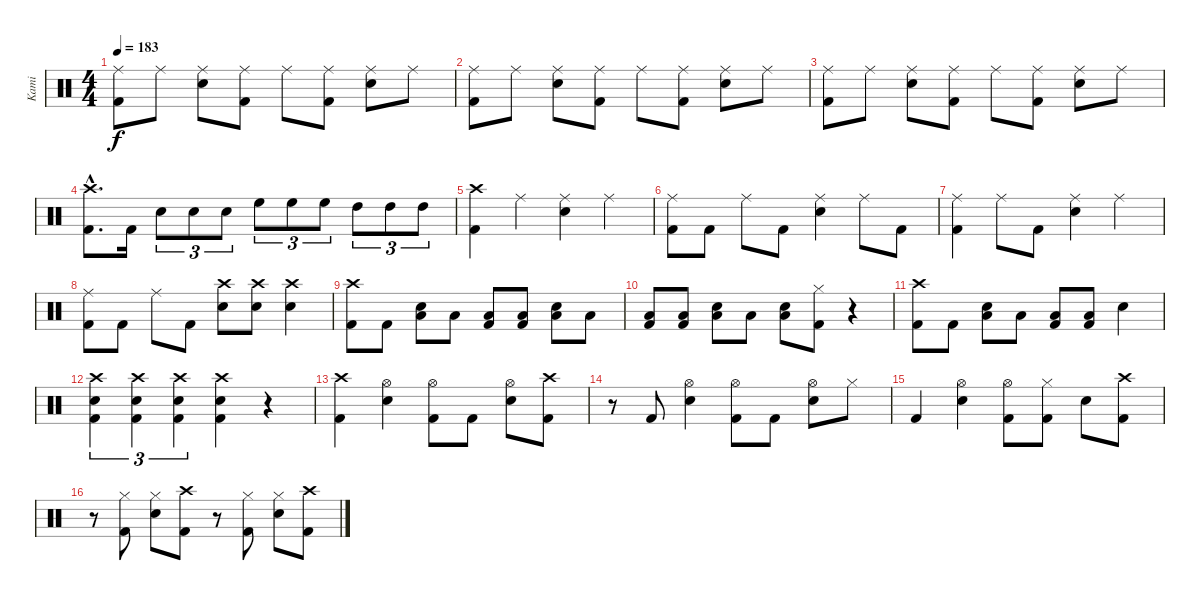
\track ("Kami" "Kami") {instrument percussion}
\staff {score}
\articulation defaults
\ts (4 4)
\tempo 183
\clef neutral
\ks c
("Ride (middle)" "Kick (hit) 2").8{dy f} "Ride (middle)".8 ("Ride (middle)" "Electric Snare (hit)").8 ("Ride (middle)" "Kick (hit) 2").8 "Ride (middle)".8 ("Ride (middle)" "Kick (hit) 2").8 ("Ride (middle)" "Electric Snare (hit)").8 "Ride (middle)".8 |
("Ride (middle)" "Kick (hit) 2").8 "Ride (middle)".8 ("Ride (middle)" "Electric Snare (hit)").8 ("Ride (middle)" "Kick (hit) 2").8 "Ride (middle)".8 ("Ride (middle)" "Kick (hit) 2").8 ("Ride (middle)" "Electric Snare (hit)").8 "Ride (middle)".8 |
("Ride (middle)" "Kick (hit) 2").8 "Ride (middle)".8 ("Ride (middle)" "Electric Snare (hit)").8 ("Ride (middle)" "Kick (hit) 2").8 "Ride (middle)".8 ("Ride (middle)" "Kick (hit) 2").8 ("Ride (middle)" "Electric Snare (hit)").8 "Ride (middle)".8 |
("Crash high (hit)"{hac} "Kick (hit) 2"{hac}).8{d} "Kick (hit) 2".16 "Electric Snare (hit)".8{tu (3 2)} "Electric Snare (hit)".8{tu (3 2)} "Electric Snare (hit)".8{tu (3 2)} "High Floor Tom (hit)".8{tu (3 2)} "High Floor Tom (hit)".8{tu (3 2)} "High Floor Tom (hit)".8{tu (3 2)} "High Tom (hit)".8{tu (3 2)} "High Tom (hit)".8{tu (3 2)} "High Tom (hit)".8{tu (3 2)} |
("Crash high (hit)" "Kick (hit) 2").4 "Ride (middle)".4 ("Ride (middle)" "Electric Snare (hit)").4 "Ride (middle)".4 |
("Ride (middle)" "Kick (hit) 2").8 "Kick (hit) 2".8 "Ride (middle)".8 "Kick (hit) 2".8 ("Ride (middle)" "Electric Snare (hit)").4 "Ride (middle)".8 "Kick (hit) 2".8 |
("Ride (middle)" "Kick (hit) 2").4 "Ride (middle)".8 "Kick (hit) 2".8 ("Ride (middle)" "Electric Snare (hit)").4 "Ride (middle)".4 |
("Ride (middle)" "Kick (hit) 2").8 "Kick (hit) 2".8 "Ride (middle)".8 "Kick (hit) 2".8 ("Crash high (hit)" "Electric Snare (hit)").8 ("Crash high (hit)" "Electric Snare (hit)").8 ("Crash high (hit)" "Electric Snare (hit)").4 |
("Crash high (hit)" "Kick (hit) 2").8 "Kick (hit) 2".8 ("Electric Snare (hit)" "Low Tom (hit)").8 "Low Tom (hit)".8 ("Low Tom (hit)" "Kick (hit) 2").8 ("Low Tom (hit)" "Kick (hit) 2").8 ("Electric Snare (hit)" "Low Tom (hit)").8 "Low Tom (hit)".8 |
("Low Tom (hit)" "Kick (hit) 2").8 ("Low Tom (hit)" "Kick (hit) 2").8 ("Electric Snare (hit)" "Low Tom (hit)").8 "Low Tom (hit)".8 ("Electric Snare (hit)" "Low Tom (hit)").8 ("Hi-Hat (closed)" "Kick (hit) 2").8 r.4 |
("Crash high (hit)" "Kick (hit) 2").8 "Kick (hit) 2".8 ("Electric Snare (hit)" "Low Tom (hit)").8 "Low Tom (hit)".8 ("Low Tom (hit)" "Kick (hit) 2").8 ("Low Tom (hit)" "Kick (hit) 2").8 "Electric Snare (hit)".4 |
("Crash high (hit)" "Electric Snare (hit)" "Kick (hit) 2").4{tu (3 2)} ("Crash high (hit)" "Electric Snare (hit)" "Kick (hit) 2").4{tu (3 2)} ("Crash high (hit)" "Electric Snare (hit)" "Kick (hit) 2").4{tu (3 2)} ("Crash high (hit)" "Electric Snare (hit)" "Kick (hit) 2").4 r.4 |
("Crash high (hit)" "Kick (hit) 2").4 ("Hi-Hat (open)" "Electric Snare (hit)").4 ("Hi-Hat (open)" "Kick (hit) 2").8 "Kick (hit) 2".8 ("Hi-Hat (open)" "Electric Snare (hit)").8 ("Crash high (hit)" "Kick (hit) 2").8 |
r.8 "Kick (hit) 2".8 ("Hi-Hat (open)" "Electric Snare (hit)").4 ("Hi-Hat (open)" "Kick (hit) 2").8 "Kick (hit) 2".8 ("Hi-Hat (open)" "Electric Snare (hit)").8 "Hi-Hat (closed)".8 |
"Kick (hit) 2".4 ("Hi-Hat (open)" "Electric Snare (hit)").4 ("Hi-Hat (open)" "Kick (hit) 2").8 ("Hi-Hat (closed)" "Kick (hit) 2").8 "Electric Snare (hit)".8 ("Crash high (hit)" "Kick (hit) 2").8 |
r.8 ("Hi-Hat (closed)" "Kick (hit) 2").8 ("Hi-Hat (closed)" "Electric Snare (hit)").8 ("Crash high (hit)" "Kick (hit) 2").8 r.8 ("Hi-Hat (closed)" "Kick (hit) 2").8 ("Hi-Hat (closed)" "Electric Snare (hit)").8 ("Crash high (hit)" "Kick (hit) 2").8
